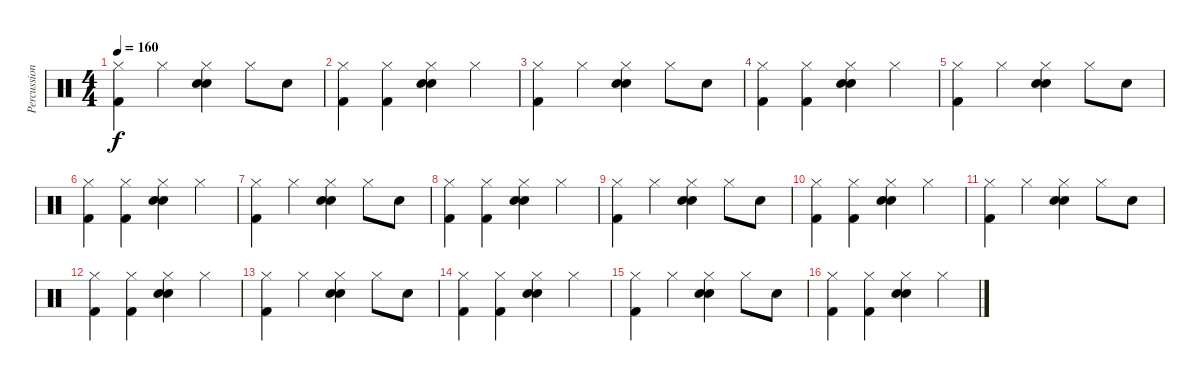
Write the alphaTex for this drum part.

\track ("Percussion" "Percussion") {instrument percussion}
\staff {score}
\articulation defaults
\ts (4 4)
\tempo 160
\clef neutral
\ks c
("Hi-Hat (closed)" "Kick (hit) 2").4{dy f} "Hi-Hat (closed)".4 ("Hi-Hat (closed)" "Snare (hit) 2" "Hand Clap (hit)").4 "Hi-Hat (closed)".8 "Snare (hit) 2".8 |
("Hi-Hat (closed)" "Kick (hit) 2").4 ("Hi-Hat (closed)" "Kick (hit) 2").4 ("Hi-Hat (closed)" "Snare (hit) 2" "Hand Clap (hit)").4 "Hi-Hat (closed)".4 |
("Hi-Hat (closed)" "Kick (hit) 2").4 "Hi-Hat (closed)".4 ("Hi-Hat (closed)" "Snare (hit) 2" "Hand Clap (hit)").4 "Hi-Hat (closed)".8 "Snare (hit) 2".8 |
("Hi-Hat (closed)" "Kick (hit) 2").4 ("Hi-Hat (closed)" "Kick (hit) 2").4 ("Hi-Hat (closed)" "Snare (hit) 2" "Hand Clap (hit)").4 "Hi-Hat (closed)".4 |
("Hi-Hat (closed)" "Kick (hit) 2").4 "Hi-Hat (closed)".4 ("Hi-Hat (closed)" "Snare (hit) 2" "Hand Clap (hit)").4 "Hi-Hat (closed)".8 "Snare (hit) 2".8 |
("Hi-Hat (closed)" "Kick (hit) 2").4 ("Hi-Hat (closed)" "Kick (hit) 2").4 ("Hi-Hat (closed)" "Snare (hit) 2" "Hand Clap (hit)").4 "Hi-Hat (closed)".4 |
("Hi-Hat (closed)" "Kick (hit) 2").4 "Hi-Hat (closed)".4 ("Hi-Hat (closed)" "Snare (hit) 2" "Hand Clap (hit)").4 "Hi-Hat (closed)".8 "Snare (hit) 2".8 |
("Hi-Hat (closed)" "Kick (hit) 2").4 ("Hi-Hat (closed)" "Kick (hit) 2").4 ("Hi-Hat (closed)" "Snare (hit) 2" "Hand Clap (hit)").4 "Hi-Hat (closed)".4 |
("Hi-Hat (closed)" "Kick (hit) 2").4 "Hi-Hat (closed)".4 ("Hi-Hat (closed)" "Snare (hit) 2" "Hand Clap (hit)").4 "Hi-Hat (closed)".8 "Snare (hit) 2".8 |
("Hi-Hat (closed)" "Kick (hit) 2").4 ("Hi-Hat (closed)" "Kick (hit) 2").4 ("Hi-Hat (closed)" "Snare (hit) 2" "Hand Clap (hit)").4 "Hi-Hat (closed)".4 |
("Hi-Hat (closed)" "Kick (hit) 2").4 "Hi-Hat (closed)".4 ("Hi-Hat (closed)" "Snare (hit) 2" "Hand Clap (hit)").4 "Hi-Hat (closed)".8 "Snare (hit) 2".8 |
("Hi-Hat (closed)" "Kick (hit) 2").4 ("Hi-Hat (closed)" "Kick (hit) 2").4 ("Hi-Hat (closed)" "Snare (hit) 2" "Hand Clap (hit)").4 "Hi-Hat (closed)".4 |
("Hi-Hat (closed)" "Kick (hit) 2").4 "Hi-Hat (closed)".4 ("Hi-Hat (closed)" "Snare (hit) 2" "Hand Clap (hit)").4 "Hi-Hat (closed)".8 "Snare (hit) 2".8 |
("Hi-Hat (closed)" "Kick (hit) 2").4 ("Hi-Hat (closed)" "Kick (hit) 2").4 ("Hi-Hat (closed)" "Snare (hit) 2" "Hand Clap (hit)").4 "Hi-Hat (closed)".4 |
("Hi-Hat (closed)" "Kick (hit) 2").4 "Hi-Hat (closed)".4 ("Hi-Hat (closed)" "Snare (hit) 2" "Hand Clap (hit)").4 "Hi-Hat (closed)".8 "Snare (hit) 2".8 |
("Hi-Hat (closed)" "Kick (hit) 2").4 ("Hi-Hat (closed)" "Kick (hit) 2").4 ("Hi-Hat (closed)" "Snare (hit) 2" "Hand Clap (hit)").4 "Hi-Hat (closed)".4
